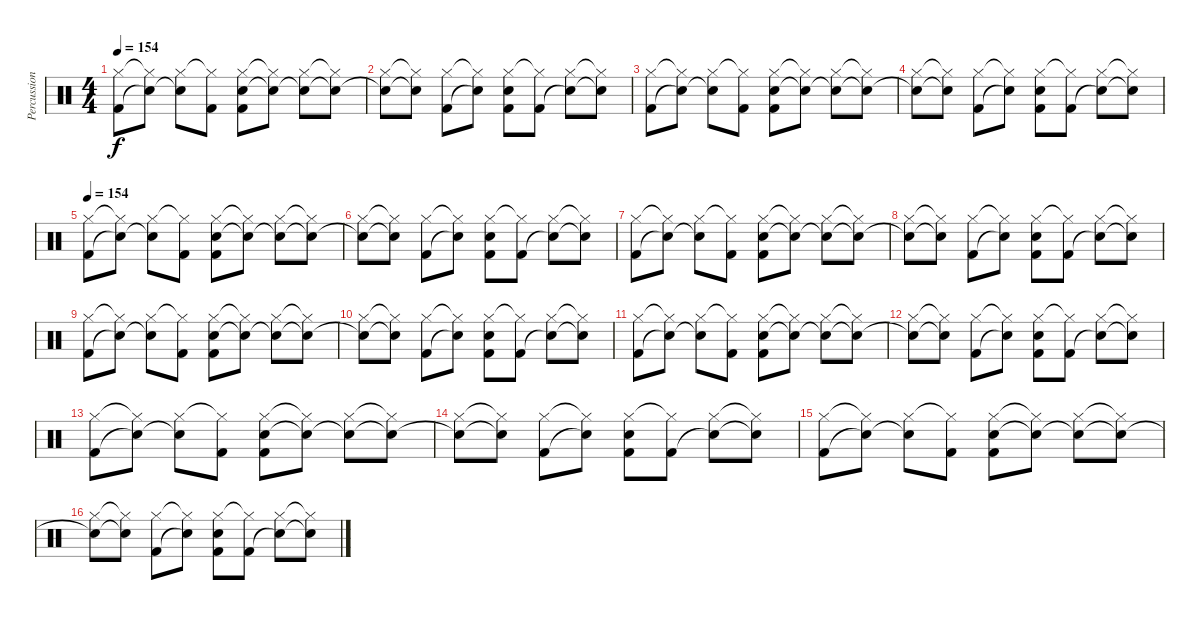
\track ("Percussion" "Percussion") {instrument percussion}
\staff {score}
\articulation defaults
\ts (4 4)
\tempo 154
\clef neutral
\ks c
("Hi-Hat (closed)" "Kick (hit) 2").8{dy f} ("Hi-Hat (closed)"{t} "Snare (hit)"{t}).8 ("Hi-Hat (closed)" "Snare (hit)"{t}).8 ("Hi-Hat (closed)"{t} "Kick (hit) 2").8 ("Hi-Hat (closed)" "Electric Snare (hit)" "Kick (hit) 2").8 ("Hi-Hat (closed)"{t} "Snare (hit)"{t}).8 ("Hi-Hat (closed)" "Snare (hit)"{t}).8 ("Hi-Hat (closed)"{t} "Snare (hit)"{t}).8 |
("Hi-Hat (closed)" "Snare (hit)"{t}).8 ("Hi-Hat (closed)"{t} "Snare (hit)"{t}).8 ("Hi-Hat (closed)" "Kick (hit) 2").8 ("Hi-Hat (closed)"{t} "Snare (hit)"{t}).8 ("Hi-Hat (closed)" "Electric Snare (hit)" "Kick (hit) 2").8 ("Hi-Hat (closed)"{t} "Kick (hit) 2").8 ("Hi-Hat (closed)" "Snare (hit)"{t}).8 ("Hi-Hat (closed)"{t} "Snare (hit)"{t}).8 |
("Hi-Hat (closed)" "Kick (hit) 2").8 ("Hi-Hat (closed)"{t} "Snare (hit)"{t}).8 ("Hi-Hat (closed)" "Snare (hit)"{t}).8 ("Hi-Hat (closed)"{t} "Kick (hit) 2").8 ("Hi-Hat (closed)" "Electric Snare (hit)" "Kick (hit) 2").8 ("Hi-Hat (closed)"{t} "Snare (hit)"{t}).8 ("Hi-Hat (closed)" "Snare (hit)"{t}).8 ("Hi-Hat (closed)"{t} "Snare (hit)"{t}).8 |
("Hi-Hat (closed)" "Snare (hit)"{t}).8 ("Hi-Hat (closed)"{t} "Snare (hit)"{t}).8 ("Hi-Hat (closed)" "Kick (hit) 2").8 ("Hi-Hat (closed)"{t} "Snare (hit)"{t}).8 ("Hi-Hat (closed)" "Electric Snare (hit)" "Kick (hit) 2").8 ("Hi-Hat (closed)"{t} "Kick (hit) 2").8 ("Hi-Hat (closed)" "Snare (hit)"{t}).8 ("Hi-Hat (closed)"{t} "Snare (hit)"{t}).8 |
\tempo 154
("Hi-Hat (closed)" "Kick (hit) 2").8 ("Hi-Hat (closed)"{t} "Snare (hit)"{t}).8 ("Hi-Hat (closed)" "Snare (hit)"{t}).8 ("Hi-Hat (closed)"{t} "Kick (hit) 2").8 ("Hi-Hat (closed)" "Electric Snare (hit)" "Kick (hit) 2").8 ("Hi-Hat (closed)"{t} "Snare (hit)"{t}).8 ("Hi-Hat (closed)" "Snare (hit)"{t}).8 ("Hi-Hat (closed)"{t} "Snare (hit)"{t}).8 |
("Hi-Hat (closed)" "Snare (hit)"{t}).8 ("Hi-Hat (closed)"{t} "Snare (hit)"{t}).8 ("Hi-Hat (closed)" "Kick (hit) 2").8 ("Hi-Hat (closed)"{t} "Snare (hit)"{t}).8 ("Hi-Hat (closed)" "Electric Snare (hit)" "Kick (hit) 2").8 ("Hi-Hat (closed)"{t} "Kick (hit) 2").8 ("Hi-Hat (closed)" "Snare (hit)"{t}).8 ("Hi-Hat (closed)"{t} "Snare (hit)"{t}).8 |
("Hi-Hat (closed)" "Kick (hit) 2").8 ("Hi-Hat (closed)"{t} "Snare (hit)"{t}).8 ("Hi-Hat (closed)" "Snare (hit)"{t}).8 ("Hi-Hat (closed)"{t} "Kick (hit) 2").8 ("Hi-Hat (closed)" "Electric Snare (hit)" "Kick (hit) 2").8 ("Hi-Hat (closed)"{t} "Snare (hit)"{t}).8 ("Hi-Hat (closed)" "Snare (hit)"{t}).8 ("Hi-Hat (closed)"{t} "Snare (hit)"{t}).8 |
("Hi-Hat (closed)" "Snare (hit)"{t}).8 ("Hi-Hat (closed)"{t} "Snare (hit)"{t}).8 ("Hi-Hat (closed)" "Kick (hit) 2").8 ("Hi-Hat (closed)"{t} "Snare (hit)"{t}).8 ("Hi-Hat (closed)" "Electric Snare (hit)" "Kick (hit) 2").8 ("Hi-Hat (closed)"{t} "Kick (hit) 2").8 ("Hi-Hat (closed)" "Snare (hit)"{t}).8 ("Hi-Hat (closed)"{t} "Snare (hit)"{t}).8 |
("Hi-Hat (closed)" "Kick (hit) 2").8 ("Hi-Hat (closed)"{t} "Snare (hit)"{t}).8 ("Hi-Hat (closed)" "Snare (hit)"{t}).8 ("Hi-Hat (closed)"{t} "Kick (hit) 2").8 ("Hi-Hat (closed)" "Electric Snare (hit)" "Kick (hit) 2").8 ("Hi-Hat (closed)"{t} "Snare (hit)"{t}).8 ("Hi-Hat (closed)" "Snare (hit)"{t}).8 ("Hi-Hat (closed)"{t} "Snare (hit)"{t}).8 |
("Hi-Hat (closed)" "Snare (hit)"{t}).8 ("Hi-Hat (closed)"{t} "Snare (hit)"{t}).8 ("Hi-Hat (closed)" "Kick (hit) 2").8 ("Hi-Hat (closed)"{t} "Snare (hit)"{t}).8 ("Hi-Hat (closed)" "Electric Snare (hit)" "Kick (hit) 2").8 ("Hi-Hat (closed)"{t} "Kick (hit) 2").8 ("Hi-Hat (closed)" "Snare (hit)"{t}).8 ("Hi-Hat (closed)"{t} "Snare (hit)"{t}).8 |
("Hi-Hat (closed)" "Kick (hit) 2").8 ("Hi-Hat (closed)"{t} "Snare (hit)"{t}).8 ("Hi-Hat (closed)" "Snare (hit)"{t}).8 ("Hi-Hat (closed)"{t} "Kick (hit) 2").8 ("Hi-Hat (closed)" "Electric Snare (hit)" "Kick (hit) 2").8 ("Hi-Hat (closed)"{t} "Snare (hit)"{t}).8 ("Hi-Hat (closed)" "Snare (hit)"{t}).8 ("Hi-Hat (closed)"{t} "Snare (hit)"{t}).8 |
("Hi-Hat (closed)" "Snare (hit)"{t}).8 ("Hi-Hat (closed)"{t} "Snare (hit)"{t}).8 ("Hi-Hat (closed)" "Kick (hit) 2").8 ("Hi-Hat (closed)"{t} "Snare (hit)"{t}).8 ("Hi-Hat (closed)" "Electric Snare (hit)" "Kick (hit) 2").8 ("Hi-Hat (closed)"{t} "Kick (hit) 2").8 ("Hi-Hat (closed)" "Snare (hit)"{t}).8 ("Hi-Hat (closed)"{t} "Snare (hit)"{t}).8 |
("Hi-Hat (closed)" "Kick (hit) 2").8 ("Hi-Hat (closed)"{t} "Snare (hit)"{t}).8 ("Hi-Hat (closed)" "Snare (hit)"{t}).8 ("Hi-Hat (closed)"{t} "Kick (hit) 2").8 ("Hi-Hat (closed)" "Electric Snare (hit)" "Kick (hit) 2").8 ("Hi-Hat (closed)"{t} "Snare (hit)"{t}).8 ("Hi-Hat (closed)" "Snare (hit)"{t}).8 ("Hi-Hat (closed)"{t} "Snare (hit)"{t}).8 |
("Hi-Hat (closed)" "Snare (hit)"{t}).8 ("Hi-Hat (closed)"{t} "Snare (hit)"{t}).8 ("Hi-Hat (closed)" "Kick (hit) 2").8 ("Hi-Hat (closed)"{t} "Snare (hit)"{t}).8 ("Hi-Hat (closed)" "Electric Snare (hit)" "Kick (hit) 2").8 ("Hi-Hat (closed)"{t} "Kick (hit) 2").8 ("Hi-Hat (closed)" "Snare (hit)"{t}).8 ("Hi-Hat (closed)"{t} "Snare (hit)"{t}).8 |
("Hi-Hat (closed)" "Kick (hit) 2").8 ("Hi-Hat (closed)"{t} "Snare (hit)"{t}).8 ("Hi-Hat (closed)" "Snare (hit)"{t}).8 ("Hi-Hat (closed)"{t} "Kick (hit) 2").8 ("Hi-Hat (closed)" "Electric Snare (hit)" "Kick (hit) 2").8 ("Hi-Hat (closed)"{t} "Snare (hit)"{t}).8 ("Hi-Hat (closed)" "Snare (hit)"{t}).8 ("Hi-Hat (closed)"{t} "Snare (hit)"{t}).8 |
("Hi-Hat (closed)" "Snare (hit)"{t}).8 ("Hi-Hat (closed)"{t} "Snare (hit)"{t}).8 ("Hi-Hat (closed)" "Kick (hit) 2").8 ("Hi-Hat (closed)"{t} "Snare (hit)"{t}).8 ("Hi-Hat (closed)" "Electric Snare (hit)" "Kick (hit) 2").8 ("Hi-Hat (closed)"{t} "Kick (hit) 2").8 ("Hi-Hat (closed)" "Snare (hit)"{t}).8 ("Hi-Hat (closed)"{t} "Snare (hit)"{t}).8
